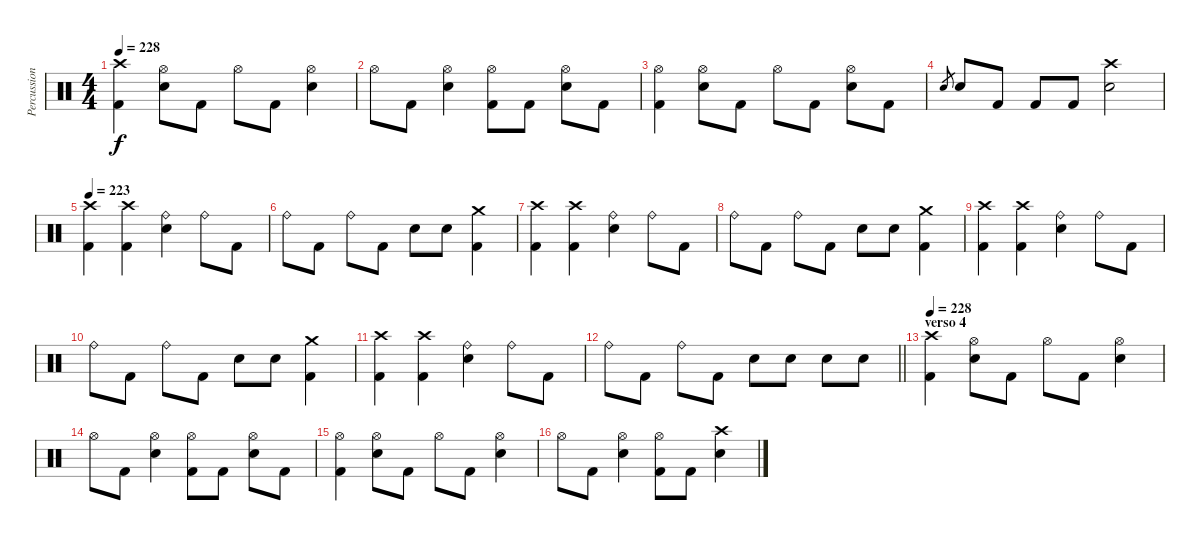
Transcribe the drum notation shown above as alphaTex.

\track ("Percussion" "Percussion") {instrument percussion}
\staff {score}
\articulation defaults
\ts (4 4)
\tempo 228
\clef neutral
\ks c
("Crash high (hit)" "Kick (hit) 2").4{dy f} ("Hi-Hat (open)" "Snare (hit) 2").8 "Kick (hit) 2".8 "Hi-Hat (open)".8 "Kick (hit) 2".8 ("Hi-Hat (open)" "Snare (hit) 2").4 |
"Hi-Hat (open)".8 "Kick (hit) 2".8 ("Hi-Hat (open)" "Snare (hit) 2").4 ("Hi-Hat (open)" "Kick (hit) 2").8 "Kick (hit) 2".8 ("Hi-Hat (open)" "Snare (hit) 2").8 "Kick (hit) 2".8 |
("Hi-Hat (open)" "Kick (hit) 2").4 ("Hi-Hat (open)" "Snare (hit) 2").8 "Kick (hit) 2".8 "Hi-Hat (open)".8 "Kick (hit) 2".8 ("Hi-Hat (open)" "Snare (hit) 2").8 "Kick (hit) 2".8 |
"Snare (hit) 2".8{gr} "Snare (hit) 2".8 "Kick (hit) 2".8 "Kick (hit) 2".8 "Kick (hit) 2".8 ("Crash high (hit)" "Snare (hit) 2").2 |
\tempo 223
("Crash high (hit)" "Kick (hit) 2").4 ("Crash high (hit)" "Kick (hit) 2").4 ("Ride (bell)" "Snare (hit) 2").4 "Ride (bell)".8 "Kick (hit) 2".8 |
"Ride (bell)".8 "Kick (hit) 2".8 "Ride (bell)".8 "Kick (hit) 2".8 "Snare (hit) 2".8 "Snare (hit) 2".8 ("Crash medium (hit)" "Kick (hit) 2").4 |
("Crash high (hit)" "Kick (hit) 2").4 ("Crash high (hit)" "Kick (hit) 2").4 ("Ride (bell)" "Snare (hit) 2").4 "Ride (bell)".8 "Kick (hit) 2".8 |
"Ride (bell)".8 "Kick (hit) 2".8 "Ride (bell)".8 "Kick (hit) 2".8 "Snare (hit) 2".8 "Snare (hit) 2".8 ("Crash medium (hit)" "Kick (hit) 2").4 |
("Crash high (hit)" "Kick (hit) 2").4 ("Crash high (hit)" "Kick (hit) 2").4 ("Ride (bell)" "Snare (hit) 2").4 "Ride (bell)".8 "Kick (hit) 2".8 |
"Ride (bell)".8 "Kick (hit) 2".8 "Ride (bell)".8 "Kick (hit) 2".8 "Snare (hit) 2".8 "Snare (hit) 2".8 ("Crash medium (hit)" "Kick (hit) 2").4 |
("Crash high (hit)" "Kick (hit) 2").4 ("Crash high (hit)" "Kick (hit) 2").4 ("Ride (bell)" "Snare (hit) 2").4 "Ride (bell)".8 "Kick (hit) 2".8 |
\barLineRight lightlight "Ride (bell)".8 "Kick (hit) 2".8 "Ride (bell)".8 "Kick (hit) 2".8 "Snare (hit) 2".8 "Snare (hit) 2".8 "Snare (hit) 2".8 "Snare (hit) 2".8
|
\section ("" "verso 4")
\tempo 228
("Crash high (hit)" "Kick (hit) 2").4 ("Hi-Hat (open)" "Snare (hit) 2").8 "Kick (hit) 2".8 "Hi-Hat (open)".8 "Kick (hit) 2".8 ("Hi-Hat (open)" "Snare (hit) 2").4 |
"Hi-Hat (open)".8 "Kick (hit) 2".8 ("Hi-Hat (open)" "Snare (hit) 2").4 ("Hi-Hat (open)" "Kick (hit) 2").8 "Kick (hit) 2".8 ("Hi-Hat (open)" "Snare (hit) 2").8 "Kick (hit) 2".8 |
("Hi-Hat (open)" "Kick (hit) 2").4 ("Hi-Hat (open)" "Snare (hit) 2").8 "Kick (hit) 2".8 "Hi-Hat (open)".8 "Kick (hit) 2".8 ("Hi-Hat (open)" "Snare (hit) 2").4 |
"Hi-Hat (open)".8 "Kick (hit) 2".8 ("Hi-Hat (open)" "Snare (hit) 2").4 ("Hi-Hat (open)" "Kick (hit) 2").8 "Kick (hit) 2".8 ("Crash high (hit)" "Snare (hit) 2").4
